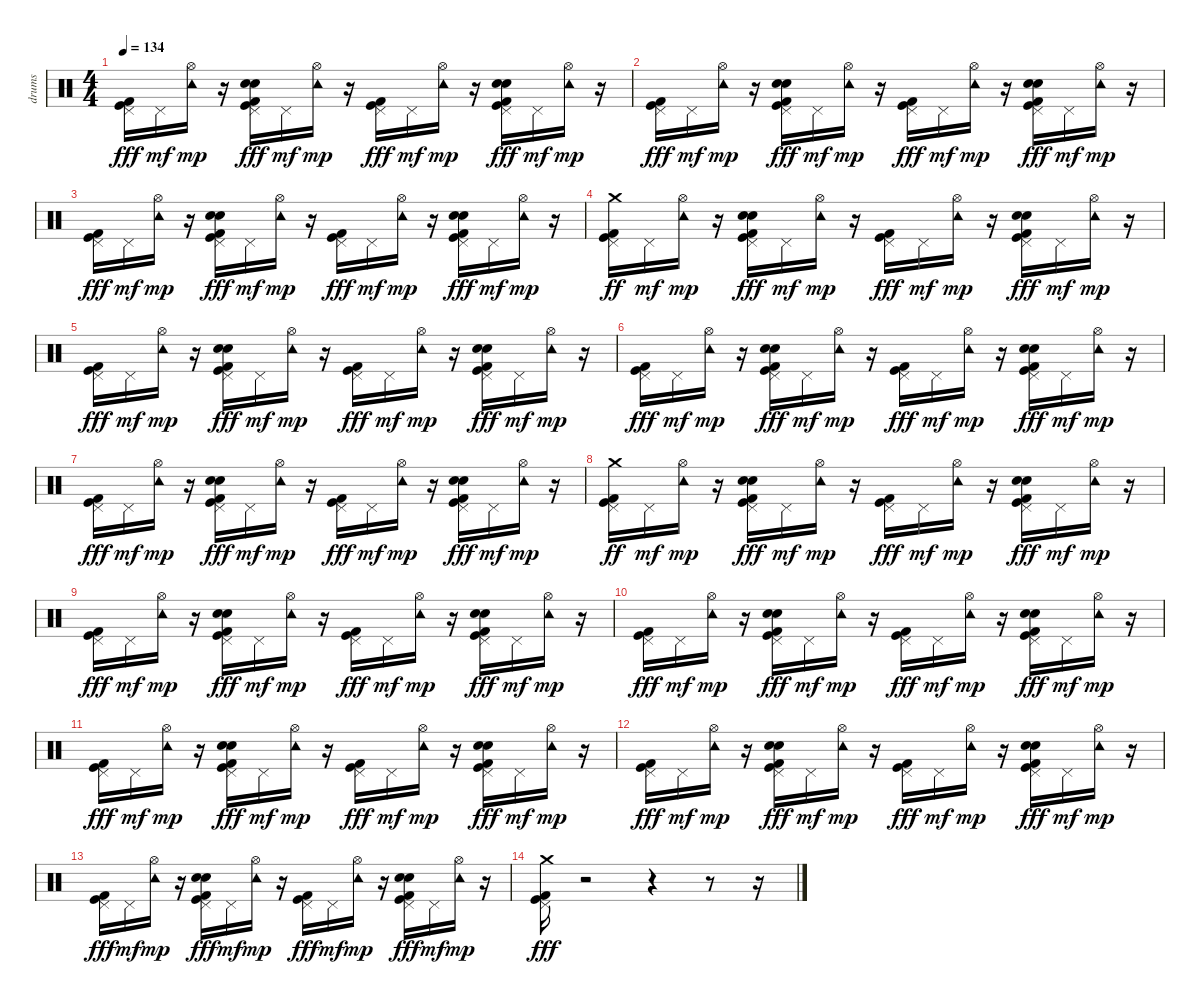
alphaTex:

\track ("drums" "drums") {instrument percussion}
\staff {score}
\articulation defaults
\ts (4 4)
\tempo 134
\clef neutral
\ks c
("Kick (hit)" "Kick (hit) 2" "Pedal Hi-Hat (hit)").16{dy fff} "Pedal Hi-Hat (hit)".16{dy mf} ("Hi-Hat (open)" "Tambourine (hit)").16{dy mp} r.16 ("Electric Snare (hit)" "Kick (hit)" "Kick (hit) 2" "Hand Clap (hit)" "Pedal Hi-Hat (hit)").16{dy fff} "Pedal Hi-Hat (hit)".16{dy mf} ("Hi-Hat (open)" "Tambourine (hit)").16{dy mp} r.16 ("Kick (hit)" "Kick (hit) 2" "Pedal Hi-Hat (hit)").16{dy fff} "Pedal Hi-Hat (hit)".16{dy mf} ("Hi-Hat (open)" "Tambourine (hit)").16{dy mp} r.16 ("Electric Snare (hit)" "Kick (hit)" "Kick (hit) 2" "Hand Clap (hit)" "Pedal Hi-Hat (hit)").16{dy fff} "Pedal Hi-Hat (hit)".16{dy mf} ("Hi-Hat (open)" "Tambourine (hit)").16{dy mp} r.16 |
("Kick (hit)" "Kick (hit) 2" "Pedal Hi-Hat (hit)").16{dy fff} "Pedal Hi-Hat (hit)".16{dy mf} ("Hi-Hat (open)" "Tambourine (hit)").16{dy mp} r.16 ("Electric Snare (hit)" "Kick (hit)" "Kick (hit) 2" "Hand Clap (hit)" "Pedal Hi-Hat (hit)").16{dy fff} "Pedal Hi-Hat (hit)".16{dy mf} ("Hi-Hat (open)" "Tambourine (hit)").16{dy mp} r.16 ("Kick (hit)" "Kick (hit) 2" "Pedal Hi-Hat (hit)").16{dy fff} "Pedal Hi-Hat (hit)".16{dy mf} ("Hi-Hat (open)" "Tambourine (hit)").16{dy mp} r.16 ("Electric Snare (hit)" "Kick (hit)" "Kick (hit) 2" "Hand Clap (hit)" "Pedal Hi-Hat (hit)").16{dy fff} "Pedal Hi-Hat (hit)".16{dy mf} ("Hi-Hat (open)" "Tambourine (hit)").16{dy mp} r.16 |
("Kick (hit)" "Kick (hit) 2" "Pedal Hi-Hat (hit)").16{dy fff} "Pedal Hi-Hat (hit)".16{dy mf} ("Hi-Hat (open)" "Tambourine (hit)").16{dy mp} r.16 ("Electric Snare (hit)" "Kick (hit)" "Kick (hit) 2" "Hand Clap (hit)" "Pedal Hi-Hat (hit)").16{dy fff} "Pedal Hi-Hat (hit)".16{dy mf} ("Hi-Hat (open)" "Tambourine (hit)").16{dy mp} r.16 ("Kick (hit)" "Kick (hit) 2" "Pedal Hi-Hat (hit)").16{dy fff} "Pedal Hi-Hat (hit)".16{dy mf} ("Hi-Hat (open)" "Tambourine (hit)").16{dy mp} r.16 ("Electric Snare (hit)" "Kick (hit)" "Kick (hit) 2" "Hand Clap (hit)" "Pedal Hi-Hat (hit)").16{dy fff} "Pedal Hi-Hat (hit)".16{dy mf} ("Hi-Hat (open)" "Tambourine (hit)").16{dy mp} r.16 |
("Kick (hit)" "Kick (hit) 2" "Pedal Hi-Hat (hit)" "Crash medium (hit)").16{dy ff} "Pedal Hi-Hat (hit)".16{dy mf} ("Hi-Hat (open)" "Tambourine (hit)").16{dy mp} r.16 ("Electric Snare (hit)" "Kick (hit)" "Kick (hit) 2" "Hand Clap (hit)" "Pedal Hi-Hat (hit)").16{dy fff} "Pedal Hi-Hat (hit)".16{dy mf} ("Hi-Hat (open)" "Tambourine (hit)").16{dy mp} r.16 ("Kick (hit)" "Kick (hit) 2" "Pedal Hi-Hat (hit)").16{dy fff} "Pedal Hi-Hat (hit)".16{dy mf} ("Hi-Hat (open)" "Tambourine (hit)").16{dy mp} r.16 ("Electric Snare (hit)" "Kick (hit)" "Kick (hit) 2" "Hand Clap (hit)" "Pedal Hi-Hat (hit)").16{dy fff} "Pedal Hi-Hat (hit)".16{dy mf} ("Hi-Hat (open)" "Tambourine (hit)").16{dy mp} r.16 |
("Kick (hit)" "Kick (hit) 2" "Pedal Hi-Hat (hit)").16{dy fff} "Pedal Hi-Hat (hit)".16{dy mf} ("Hi-Hat (open)" "Tambourine (hit)").16{dy mp} r.16 ("Electric Snare (hit)" "Kick (hit)" "Kick (hit) 2" "Hand Clap (hit)" "Pedal Hi-Hat (hit)").16{dy fff} "Pedal Hi-Hat (hit)".16{dy mf} ("Hi-Hat (open)" "Tambourine (hit)").16{dy mp} r.16 ("Kick (hit)" "Kick (hit) 2" "Pedal Hi-Hat (hit)").16{dy fff} "Pedal Hi-Hat (hit)".16{dy mf} ("Hi-Hat (open)" "Tambourine (hit)").16{dy mp} r.16 ("Electric Snare (hit)" "Kick (hit)" "Kick (hit) 2" "Hand Clap (hit)" "Pedal Hi-Hat (hit)").16{dy fff} "Pedal Hi-Hat (hit)".16{dy mf} ("Hi-Hat (open)" "Tambourine (hit)").16{dy mp} r.16 |
("Kick (hit)" "Kick (hit) 2" "Pedal Hi-Hat (hit)").16{dy fff} "Pedal Hi-Hat (hit)".16{dy mf} ("Hi-Hat (open)" "Tambourine (hit)").16{dy mp} r.16 ("Electric Snare (hit)" "Kick (hit)" "Kick (hit) 2" "Hand Clap (hit)" "Pedal Hi-Hat (hit)").16{dy fff} "Pedal Hi-Hat (hit)".16{dy mf} ("Hi-Hat (open)" "Tambourine (hit)").16{dy mp} r.16 ("Kick (hit)" "Kick (hit) 2" "Pedal Hi-Hat (hit)").16{dy fff} "Pedal Hi-Hat (hit)".16{dy mf} ("Hi-Hat (open)" "Tambourine (hit)").16{dy mp} r.16 ("Electric Snare (hit)" "Kick (hit)" "Kick (hit) 2" "Hand Clap (hit)" "Pedal Hi-Hat (hit)").16{dy fff} "Pedal Hi-Hat (hit)".16{dy mf} ("Hi-Hat (open)" "Tambourine (hit)").16{dy mp} r.16 |
("Kick (hit)" "Kick (hit) 2" "Pedal Hi-Hat (hit)").16{dy fff} "Pedal Hi-Hat (hit)".16{dy mf} ("Hi-Hat (open)" "Tambourine (hit)").16{dy mp} r.16 ("Electric Snare (hit)" "Kick (hit)" "Kick (hit) 2" "Hand Clap (hit)" "Pedal Hi-Hat (hit)").16{dy fff} "Pedal Hi-Hat (hit)".16{dy mf} ("Hi-Hat (open)" "Tambourine (hit)").16{dy mp} r.16 ("Kick (hit)" "Kick (hit) 2" "Pedal Hi-Hat (hit)").16{dy fff} "Pedal Hi-Hat (hit)".16{dy mf} ("Hi-Hat (open)" "Tambourine (hit)").16{dy mp} r.16 ("Electric Snare (hit)" "Kick (hit)" "Kick (hit) 2" "Hand Clap (hit)" "Pedal Hi-Hat (hit)").16{dy fff} "Pedal Hi-Hat (hit)".16{dy mf} ("Hi-Hat (open)" "Tambourine (hit)").16{dy mp} r.16 |
("Kick (hit)" "Kick (hit) 2" "Pedal Hi-Hat (hit)" "Crash medium (hit)").16{dy ff} "Pedal Hi-Hat (hit)".16{dy mf} ("Hi-Hat (open)" "Tambourine (hit)").16{dy mp} r.16 ("Electric Snare (hit)" "Kick (hit)" "Kick (hit) 2" "Hand Clap (hit)" "Pedal Hi-Hat (hit)").16{dy fff} "Pedal Hi-Hat (hit)".16{dy mf} ("Hi-Hat (open)" "Tambourine (hit)").16{dy mp} r.16 ("Kick (hit)" "Kick (hit) 2" "Pedal Hi-Hat (hit)").16{dy fff} "Pedal Hi-Hat (hit)".16{dy mf} ("Hi-Hat (open)" "Tambourine (hit)").16{dy mp} r.16 ("Electric Snare (hit)" "Kick (hit)" "Kick (hit) 2" "Hand Clap (hit)" "Pedal Hi-Hat (hit)").16{dy fff} "Pedal Hi-Hat (hit)".16{dy mf} ("Hi-Hat (open)" "Tambourine (hit)").16{dy mp} r.16 |
("Kick (hit)" "Kick (hit) 2" "Pedal Hi-Hat (hit)").16{dy fff} "Pedal Hi-Hat (hit)".16{dy mf} ("Hi-Hat (open)" "Tambourine (hit)").16{dy mp} r.16 ("Electric Snare (hit)" "Kick (hit)" "Kick (hit) 2" "Hand Clap (hit)" "Pedal Hi-Hat (hit)").16{dy fff} "Pedal Hi-Hat (hit)".16{dy mf} ("Hi-Hat (open)" "Tambourine (hit)").16{dy mp} r.16 ("Kick (hit)" "Kick (hit) 2" "Pedal Hi-Hat (hit)").16{dy fff} "Pedal Hi-Hat (hit)".16{dy mf} ("Hi-Hat (open)" "Tambourine (hit)").16{dy mp} r.16 ("Electric Snare (hit)" "Kick (hit)" "Kick (hit) 2" "Hand Clap (hit)" "Pedal Hi-Hat (hit)").16{dy fff} "Pedal Hi-Hat (hit)".16{dy mf} ("Hi-Hat (open)" "Tambourine (hit)").16{dy mp} r.16 |
("Kick (hit)" "Kick (hit) 2" "Pedal Hi-Hat (hit)").16{dy fff} "Pedal Hi-Hat (hit)".16{dy mf} ("Hi-Hat (open)" "Tambourine (hit)").16{dy mp} r.16 ("Electric Snare (hit)" "Kick (hit)" "Kick (hit) 2" "Hand Clap (hit)" "Pedal Hi-Hat (hit)").16{dy fff} "Pedal Hi-Hat (hit)".16{dy mf} ("Hi-Hat (open)" "Tambourine (hit)").16{dy mp} r.16 ("Kick (hit)" "Kick (hit) 2" "Pedal Hi-Hat (hit)").16{dy fff} "Pedal Hi-Hat (hit)".16{dy mf} ("Hi-Hat (open)" "Tambourine (hit)").16{dy mp} r.16 ("Electric Snare (hit)" "Kick (hit)" "Kick (hit) 2" "Hand Clap (hit)" "Pedal Hi-Hat (hit)").16{dy fff} "Pedal Hi-Hat (hit)".16{dy mf} ("Hi-Hat (open)" "Tambourine (hit)").16{dy mp} r.16 |
("Kick (hit)" "Kick (hit) 2" "Pedal Hi-Hat (hit)").16{dy fff} "Pedal Hi-Hat (hit)".16{dy mf} ("Hi-Hat (open)" "Tambourine (hit)").16{dy mp} r.16 ("Electric Snare (hit)" "Kick (hit)" "Kick (hit) 2" "Hand Clap (hit)" "Pedal Hi-Hat (hit)").16{dy fff} "Pedal Hi-Hat (hit)".16{dy mf} ("Hi-Hat (open)" "Tambourine (hit)").16{dy mp} r.16 ("Kick (hit)" "Kick (hit) 2" "Pedal Hi-Hat (hit)").16{dy fff} "Pedal Hi-Hat (hit)".16{dy mf} ("Hi-Hat (open)" "Tambourine (hit)").16{dy mp} r.16 ("Electric Snare (hit)" "Kick (hit)" "Kick (hit) 2" "Hand Clap (hit)" "Pedal Hi-Hat (hit)").16{dy fff} "Pedal Hi-Hat (hit)".16{dy mf} ("Hi-Hat (open)" "Tambourine (hit)").16{dy mp} r.16 |
("Kick (hit)" "Kick (hit) 2" "Pedal Hi-Hat (hit)").16{dy fff} "Pedal Hi-Hat (hit)".16{dy mf} ("Hi-Hat (open)" "Tambourine (hit)").16{dy mp} r.16 ("Electric Snare (hit)" "Kick (hit)" "Kick (hit) 2" "Hand Clap (hit)" "Pedal Hi-Hat (hit)").16{dy fff} "Pedal Hi-Hat (hit)".16{dy mf} ("Hi-Hat (open)" "Tambourine (hit)").16{dy mp} r.16 ("Kick (hit)" "Kick (hit) 2" "Pedal Hi-Hat (hit)").16{dy fff} "Pedal Hi-Hat (hit)".16{dy mf} ("Hi-Hat (open)" "Tambourine (hit)").16{dy mp} r.16 ("Electric Snare (hit)" "Kick (hit)" "Kick (hit) 2" "Hand Clap (hit)" "Pedal Hi-Hat (hit)").16{dy fff} "Pedal Hi-Hat (hit)".16{dy mf} ("Hi-Hat (open)" "Tambourine (hit)").16{dy mp} r.16 |
("Kick (hit)" "Kick (hit) 2" "Pedal Hi-Hat (hit)").16{dy fff} "Pedal Hi-Hat (hit)".16{dy mf} ("Hi-Hat (open)" "Tambourine (hit)").16{dy mp} r.16 ("Electric Snare (hit)" "Kick (hit)" "Kick (hit) 2" "Hand Clap (hit)" "Pedal Hi-Hat (hit)").16{dy fff} "Pedal Hi-Hat (hit)".16{dy mf} ("Hi-Hat (open)" "Tambourine (hit)").16{dy mp} r.16 ("Kick (hit)" "Kick (hit) 2" "Pedal Hi-Hat (hit)").16{dy fff} "Pedal Hi-Hat (hit)".16{dy mf} ("Hi-Hat (open)" "Tambourine (hit)").16{dy mp} r.16 ("Electric Snare (hit)" "Kick (hit)" "Kick (hit) 2" "Hand Clap (hit)" "Pedal Hi-Hat (hit)").16{dy fff} "Pedal Hi-Hat (hit)".16{dy mf} ("Hi-Hat (open)" "Tambourine (hit)").16{dy mp} r.16 |
("Pedal Hi-Hat (hit)" "Crash medium (hit)" "Kick (hit) 2" "Kick (hit)").16{dy fff} r.2 r.4 r.8 r.16
